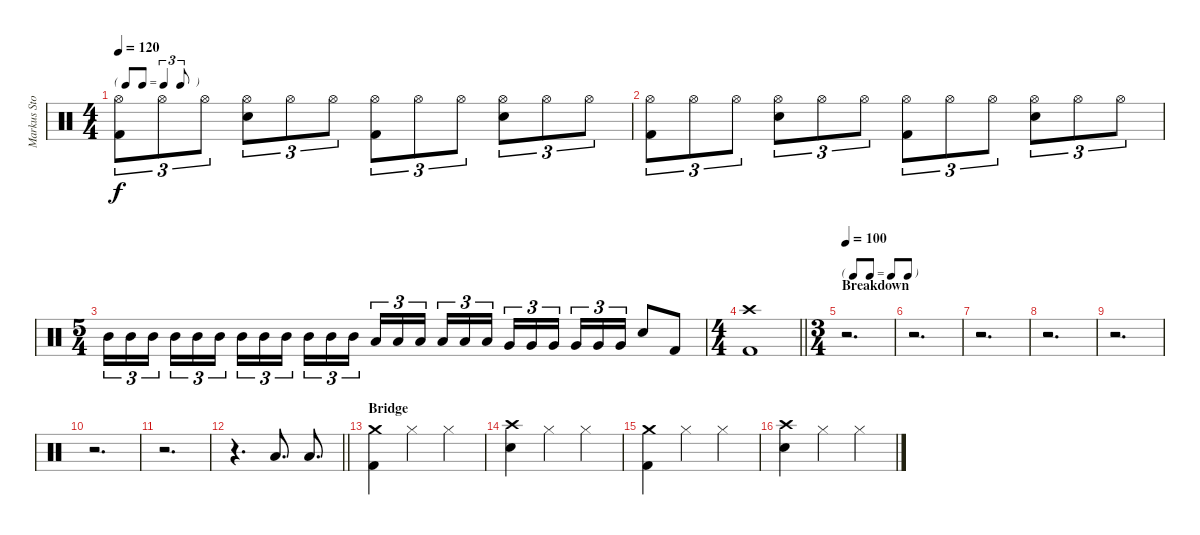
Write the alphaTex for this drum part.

\track ("Markus Stock" "Markus Sto") {instrument percussion}
\staff {score}
\articulation defaults
\ts (4 4)
\tf triplet8th
\tempo 120
\clef neutral
\ks c
("Hi-Hat (open)" "Kick (hit) 2").8{tu (3 2) dy f} "Hi-Hat (open)".8{tu (3 2)} "Hi-Hat (open)".8{tu (3 2)} ("Hi-Hat (open)" "Snare (hit) 2").8{tu (3 2)} "Hi-Hat (open)".8{tu (3 2)} "Hi-Hat (open)".8{tu (3 2)} ("Hi-Hat (open)" "Kick (hit) 2").8{tu (3 2)} "Hi-Hat (open)".8{tu (3 2)} "Hi-Hat (open)".8{tu (3 2)} ("Hi-Hat (open)" "Snare (hit) 2").8{tu (3 2)} "Hi-Hat (open)".8{tu (3 2)} "Hi-Hat (open)".8{tu (3 2)} |
("Hi-Hat (open)" "Kick (hit) 2").8{tu (3 2)} "Hi-Hat (open)".8{tu (3 2)} "Hi-Hat (open)".8{tu (3 2)} ("Hi-Hat (open)" "Snare (hit) 2").8{tu (3 2)} "Hi-Hat (open)".8{tu (3 2)} "Hi-Hat (open)".8{tu (3 2)} ("Hi-Hat (open)" "Kick (hit) 2").8{tu (3 2)} "Hi-Hat (open)".8{tu (3 2)} "Hi-Hat (open)".8{tu (3 2)} ("Hi-Hat (open)" "Snare (hit) 2").8{tu (3 2)} "Hi-Hat (open)".8{tu (3 2)} "Hi-Hat (open)".8{tu (3 2)} |
\ts (5 4)
"Mid Tom (hit)".16{tu (3 2)} "Mid Tom (hit)".16{tu (3 2)} "Mid Tom (hit)".16{tu (3 2) beam splitsecondary} "Mid Tom (hit)".16{tu (3 2)} "Mid Tom (hit)".16{tu (3 2)} "Mid Tom (hit)".16{tu (3 2)} "Mid Tom (hit)".16{tu (3 2)} "Mid Tom (hit)".16{tu (3 2)} "Mid Tom (hit)".16{tu (3 2) beam splitsecondary} "Mid Tom (hit)".16{tu (3 2)} "Mid Tom (hit)".16{tu (3 2)} "Mid Tom (hit)".16{tu (3 2)} "Low Tom (hit)".16{tu (3 2)} "Low Tom (hit)".16{tu (3 2)} "Low Tom (hit)".16{tu (3 2) beam splitsecondary} "Low Tom (hit)".16{tu (3 2)} "Low Tom (hit)".16{tu (3 2)} "Low Tom (hit)".16{tu (3 2)} "Very Low Tom (hit)".16{tu (3 2)} "Very Low Tom (hit)".16{tu (3 2)} "Very Low Tom (hit)".16{tu (3 2) beam splitsecondary} "Very Low Tom (hit)".16{tu (3 2)} "Very Low Tom (hit)".16{tu (3 2)} "Very Low Tom (hit)".16{tu (3 2)} "Snare (hit) 2".8 "Kick (hit) 2".8 |
\ts (4 4)
\barLineRight lightlight
("Crash high (hit)" "Kick (hit) 2").1 |
\ts (3 4)
\tf none
\section ("" "Breakdown")
\tempo 100
r.2{d} |
r.2{d} |
r.2{d} |
r.2{d} |
r.2{d} |
r.2{d} |
r.2{d} |
\barLineRight lightlight
r.4{d} "Low Tom (hit)".8{d} "Low Tom (hit)".8{d} |
\section ("" "Bridge")
("Crash medium (hit)" "Kick (hit) 2").4 "Hi-Hat (closed)".4 "Hi-Hat (closed)".4 |
("Crash high (hit)" "Snare (hit) 2").4 "Hi-Hat (closed)".4 "Hi-Hat (closed)".4 |
("Crash medium (hit)" "Kick (hit) 2").4 "Hi-Hat (closed)".4 "Hi-Hat (closed)".4 |
("Crash high (hit)" "Snare (hit) 2").4 "Hi-Hat (closed)".4 "Hi-Hat (closed)".4
